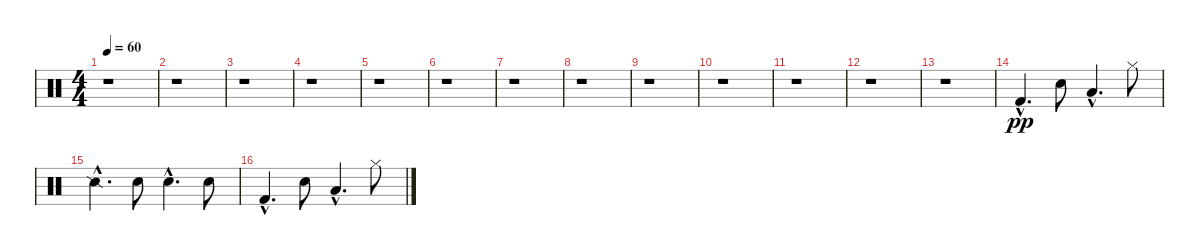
\track "" {instrument percussion}
\staff {score}
\articulation defaults
\ts (4 4)
\tempo 60
\clef neutral
\ks c
r.1{dy pp} |
r.1 |
r.1 |
r.1 |
r.1 |
r.1 |
r.1 |
r.1 |
r.1 |
r.1 |
r.1 |
r.1 |
r.1 |
"Kick (hit) 2"{hac}.4{d} "Hand Clap (hit)".8 "Low Tom (hit)"{hac}.4{d} "Hi-Hat (closed)".8 |
"Snare (side stick) 2"{hac}.4{d} "Metronome (bell)".8 "Hand Clap (hit)"{hac}.4{d} "Metronome (bell)".8 |
"Kick (hit) 2"{hac}.4{d} "Hand Clap (hit)".8 "Low Tom (hit)"{hac}.4{d} "Hi-Hat (closed)".8
